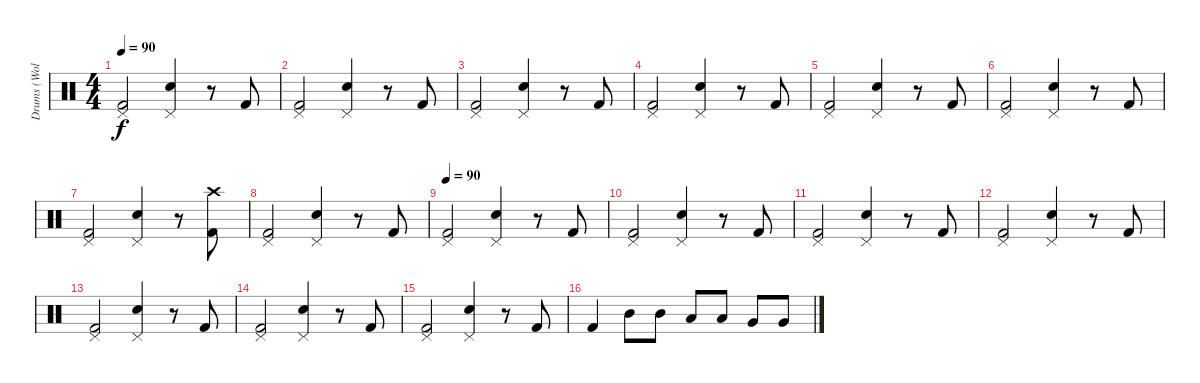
\track ("Drums (Wolf Simons)" "Drums (Wol") {instrument percussion}
\staff {score}
\articulation defaults
\ts (4 4)
\tempo 90
\clef neutral
\ks c
("Pedal Hi-Hat (hit)" "Kick (hit) 2").2{dy f} ("Pedal Hi-Hat (hit)" "Snare (hit) 2").4 r.8 "Kick (hit) 2".8 |
("Pedal Hi-Hat (hit)" "Kick (hit) 2").2 ("Pedal Hi-Hat (hit)" "Snare (hit) 2").4 r.8 "Kick (hit) 2".8 |
("Pedal Hi-Hat (hit)" "Kick (hit) 2").2 ("Pedal Hi-Hat (hit)" "Snare (hit) 2").4 r.8 "Kick (hit) 2".8 |
("Pedal Hi-Hat (hit)" "Kick (hit) 2").2 ("Pedal Hi-Hat (hit)" "Snare (hit) 2").4 r.8 "Kick (hit) 2".8 |
("Pedal Hi-Hat (hit)" "Kick (hit) 2").2 ("Pedal Hi-Hat (hit)" "Snare (hit) 2").4 r.8 "Kick (hit) 2".8 |
("Pedal Hi-Hat (hit)" "Kick (hit) 2").2 ("Pedal Hi-Hat (hit)" "Snare (hit) 2").4 r.8 "Kick (hit) 2".8 |
("Pedal Hi-Hat (hit)" "Kick (hit) 2").2 ("Pedal Hi-Hat (hit)" "Snare (hit) 2").4 r.8 ("Crash high (hit)" "Kick (hit) 2").8 |
("Pedal Hi-Hat (hit)" "Kick (hit) 2").2 ("Pedal Hi-Hat (hit)" "Snare (hit) 2").4 r.8 "Kick (hit) 2".8 |
\tempo 90
("Pedal Hi-Hat (hit)" "Kick (hit) 2").2 ("Pedal Hi-Hat (hit)" "Snare (hit) 2").4 r.8 "Kick (hit) 2".8 |
("Pedal Hi-Hat (hit)" "Kick (hit) 2").2 ("Pedal Hi-Hat (hit)" "Snare (hit) 2").4 r.8 "Kick (hit) 2".8 |
("Pedal Hi-Hat (hit)" "Kick (hit) 2").2 ("Pedal Hi-Hat (hit)" "Snare (hit) 2").4 r.8 "Kick (hit) 2".8 |
("Pedal Hi-Hat (hit)" "Kick (hit) 2").2 ("Pedal Hi-Hat (hit)" "Snare (hit) 2").4 r.8 "Kick (hit) 2".8 |
("Pedal Hi-Hat (hit)" "Kick (hit) 2").2 ("Pedal Hi-Hat (hit)" "Snare (hit) 2").4 r.8 "Kick (hit) 2".8 |
("Pedal Hi-Hat (hit)" "Kick (hit) 2").2 ("Pedal Hi-Hat (hit)" "Snare (hit) 2").4 r.8 "Kick (hit) 2".8 |
("Pedal Hi-Hat (hit)" "Kick (hit) 2").2 ("Pedal Hi-Hat (hit)" "Snare (hit) 2").4 r.8 "Kick (hit) 2".8 |
"Kick (hit) 2".4 "Mid Tom (hit)".8 "Mid Tom (hit)".8 "Low Tom (hit)".8 "Low Tom (hit)".8 "Very Low Tom (hit)".8 "Very Low Tom (hit)".8
